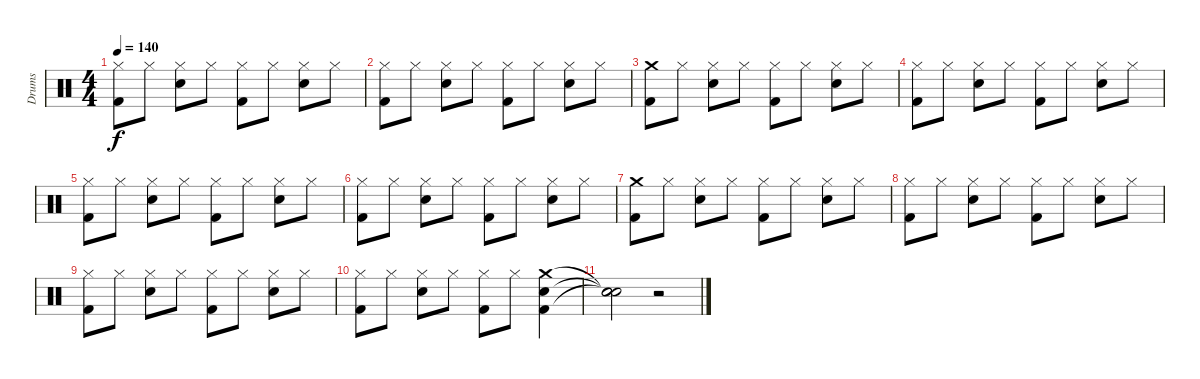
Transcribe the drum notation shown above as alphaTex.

\track ("Drums" "Drums") {instrument percussion}
\staff {score}
\articulation defaults
\ts (4 4)
\tempo 140
\clef neutral
\ks c
("Hi-Hat (closed)" "Kick (hit) 2").8{dy f} "Hi-Hat (closed)".8 ("Hi-Hat (closed)" "Electric Snare (hit)").8 "Hi-Hat (closed)".8 ("Hi-Hat (closed)" "Kick (hit) 2").8 "Hi-Hat (closed)".8 ("Hi-Hat (closed)" "Electric Snare (hit)").8 "Hi-Hat (closed)".8 |
("Hi-Hat (closed)" "Kick (hit) 2").8 "Hi-Hat (closed)".8 ("Hi-Hat (closed)" "Electric Snare (hit)").8 "Hi-Hat (closed)".8 ("Hi-Hat (closed)" "Kick (hit) 2").8 "Hi-Hat (closed)".8 ("Hi-Hat (closed)" "Electric Snare (hit)").8 "Hi-Hat (closed)".8 |
("Crash medium (hit)" "Kick (hit) 2").8 "Hi-Hat (closed)".8 ("Hi-Hat (closed)" "Electric Snare (hit)").8 "Hi-Hat (closed)".8 ("Hi-Hat (closed)" "Kick (hit) 2").8 "Hi-Hat (closed)".8 ("Hi-Hat (closed)" "Electric Snare (hit)").8 "Hi-Hat (closed)".8 |
("Hi-Hat (closed)" "Kick (hit) 2").8 "Hi-Hat (closed)".8 ("Hi-Hat (closed)" "Electric Snare (hit)").8 "Hi-Hat (closed)".8 ("Hi-Hat (closed)" "Kick (hit) 2").8 "Hi-Hat (closed)".8 ("Hi-Hat (closed)" "Electric Snare (hit)").8 "Hi-Hat (closed)".8 |
("Hi-Hat (closed)" "Kick (hit) 2").8 "Hi-Hat (closed)".8 ("Hi-Hat (closed)" "Electric Snare (hit)").8 "Hi-Hat (closed)".8 ("Hi-Hat (closed)" "Kick (hit) 2").8 "Hi-Hat (closed)".8 ("Hi-Hat (closed)" "Electric Snare (hit)").8 "Hi-Hat (closed)".8 |
("Hi-Hat (closed)" "Kick (hit) 2").8 "Hi-Hat (closed)".8 ("Hi-Hat (closed)" "Electric Snare (hit)").8 "Hi-Hat (closed)".8 ("Hi-Hat (closed)" "Kick (hit) 2").8 "Hi-Hat (closed)".8 ("Hi-Hat (closed)" "Electric Snare (hit)").8 "Hi-Hat (closed)".8 |
("Crash medium (hit)" "Kick (hit) 2").8 "Hi-Hat (closed)".8 ("Hi-Hat (closed)" "Electric Snare (hit)").8 "Hi-Hat (closed)".8 ("Hi-Hat (closed)" "Kick (hit) 2").8 "Hi-Hat (closed)".8 ("Hi-Hat (closed)" "Electric Snare (hit)").8 "Hi-Hat (closed)".8 |
("Hi-Hat (closed)" "Kick (hit) 2").8 "Hi-Hat (closed)".8 ("Hi-Hat (closed)" "Electric Snare (hit)").8 "Hi-Hat (closed)".8 ("Hi-Hat (closed)" "Kick (hit) 2").8 "Hi-Hat (closed)".8 ("Hi-Hat (closed)" "Electric Snare (hit)").8 "Hi-Hat (closed)".8 |
("Hi-Hat (closed)" "Kick (hit) 2").8 "Hi-Hat (closed)".8 ("Hi-Hat (closed)" "Electric Snare (hit)").8 "Hi-Hat (closed)".8 ("Hi-Hat (closed)" "Kick (hit) 2").8 "Hi-Hat (closed)".8 ("Hi-Hat (closed)" "Electric Snare (hit)").8 "Hi-Hat (closed)".8 |
("Hi-Hat (closed)" "Kick (hit) 2").8 "Hi-Hat (closed)".8 ("Hi-Hat (closed)" "Electric Snare (hit)").8 "Hi-Hat (closed)".8 ("Hi-Hat (closed)" "Kick (hit) 2").8 "Hi-Hat (closed)".8 ("Crash medium (hit)" "Electric Snare (hit)" "Kick (hit) 2").4 |
("Snare (hit)"{t} "Snare (hit)"{t} "Snare (hit)"{t}).2 r.2
